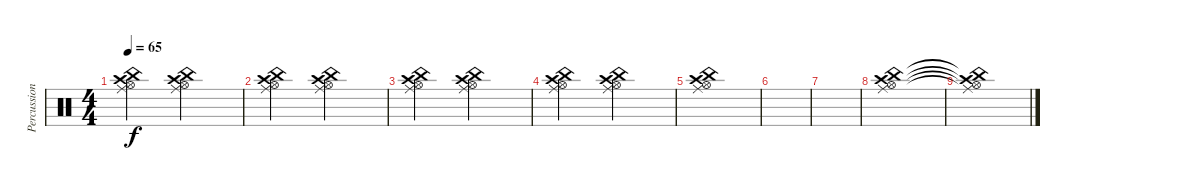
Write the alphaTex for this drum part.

\track ("Percussion" "Percussion") {instrument percussion}
\staff {score}
\articulation defaults
\ts (4 4)
\tempo 65
\clef neutral
\ks c
("China (hit)" "Crash high (hit)" "Ride (middle)" "Hi-Hat (open)").2{dy f} ("China (hit)" "Crash high (hit)" "Ride (middle)" "Hi-Hat (open)").2 |
("China (hit)" "Crash high (hit)" "Ride (middle)" "Hi-Hat (open)").2 ("China (hit)" "Crash high (hit)" "Ride (middle)" "Hi-Hat (open)").2 |
("China (hit)" "Crash high (hit)" "Ride (middle)" "Hi-Hat (open)").2 ("China (hit)" "Crash high (hit)" "Ride (middle)" "Hi-Hat (open)").2 |
("China (hit)" "Crash high (hit)" "Ride (middle)" "Hi-Hat (open)").2 ("China (hit)" "Crash high (hit)" "Ride (middle)" "Hi-Hat (open)").2 |
("China (hit)" "Crash high (hit)" "Ride (middle)" "Hi-Hat (open)").1 |
|
|
("China (hit)" "Crash high (hit)" "Ride (middle)" "Hi-Hat (open)").1 |
("China (hit)"{t} "Crash high (hit)"{t} "Ride (middle)"{t} "Hi-Hat (open)"{t}).1
